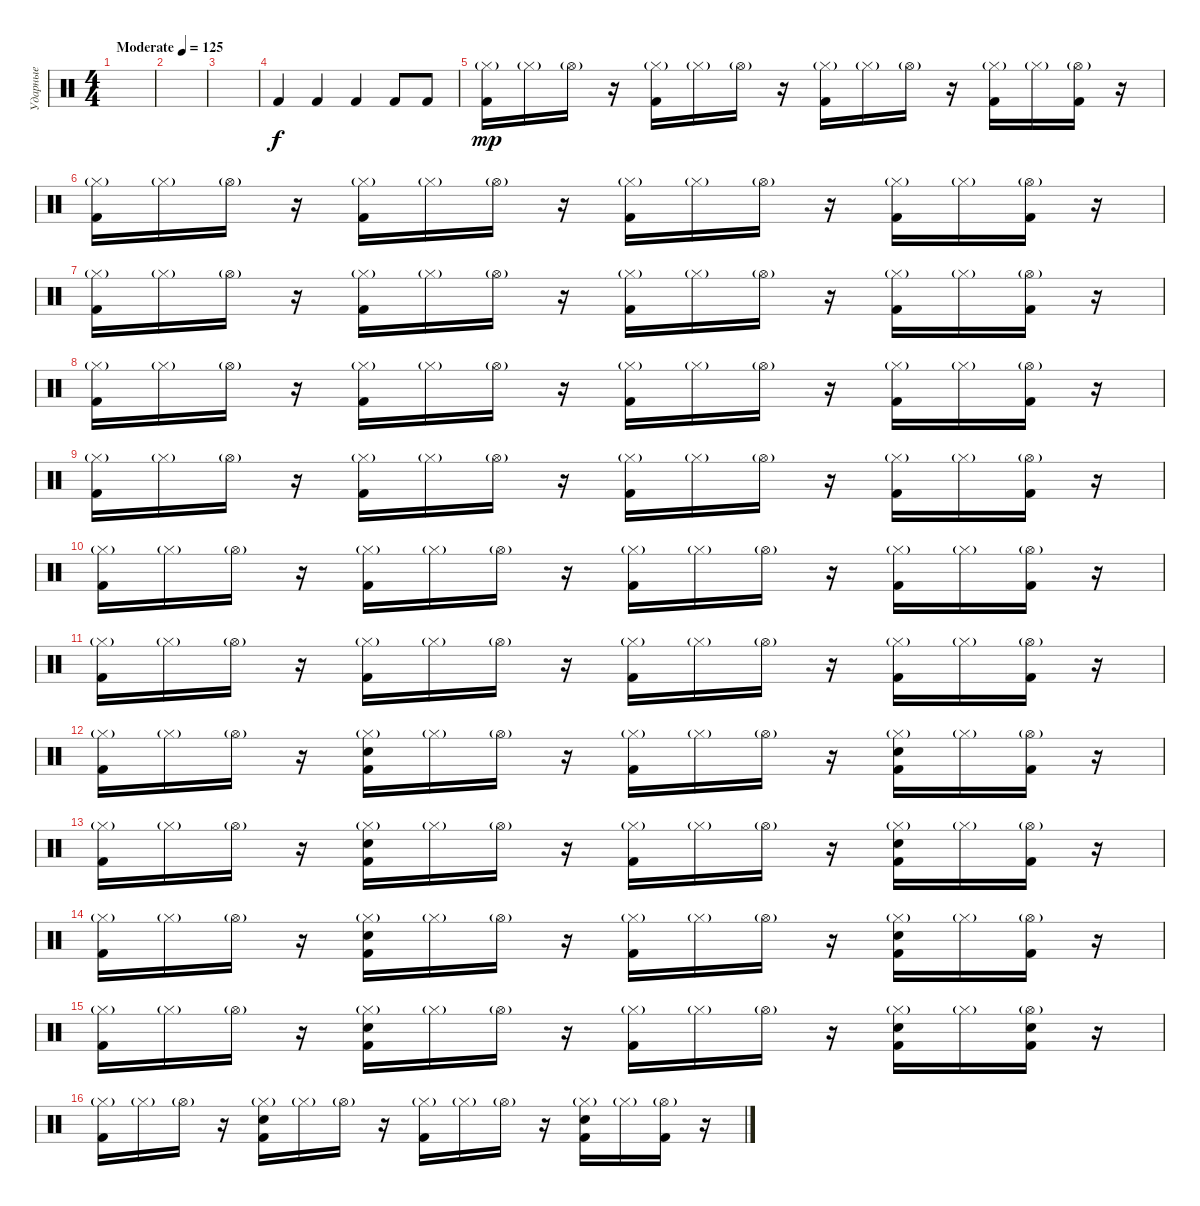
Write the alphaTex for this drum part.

\track ("Ударные" "Ударные") {instrument percussion}
\staff {score}
\articulation defaults
\ts (4 4)
\tempo (125 "Moderate")
\clef neutral
\ks c
|
|
|
"Kick (hit) 2".4 "Kick (hit) 2".4 "Kick (hit) 2".4 "Kick (hit) 2".8 "Kick (hit) 2".8 |
("Hi-Hat (closed)"{g} "Kick (hit) 2").16{dy mp} "Hi-Hat (closed)"{g}.16 "Hi-Hat (open)"{g}.16 r.16 ("Hi-Hat (closed)"{g} "Kick (hit) 2").16 "Hi-Hat (closed)"{g}.16 "Hi-Hat (open)"{g}.16 r.16 ("Hi-Hat (closed)"{g} "Kick (hit) 2").16 "Hi-Hat (closed)"{g}.16 "Hi-Hat (open)"{g}.16 r.16 ("Hi-Hat (closed)"{g} "Kick (hit) 2").16 "Hi-Hat (closed)"{g}.16 ("Hi-Hat (open)"{g} "Kick (hit) 2").16 r.16 |
("Hi-Hat (closed)"{g} "Kick (hit) 2").16 "Hi-Hat (closed)"{g}.16 "Hi-Hat (open)"{g}.16 r.16 ("Hi-Hat (closed)"{g} "Kick (hit) 2").16 "Hi-Hat (closed)"{g}.16 "Hi-Hat (open)"{g}.16 r.16 ("Hi-Hat (closed)"{g} "Kick (hit) 2").16 "Hi-Hat (closed)"{g}.16 "Hi-Hat (open)"{g}.16 r.16 ("Hi-Hat (closed)"{g} "Kick (hit) 2").16 "Hi-Hat (closed)"{g}.16 ("Hi-Hat (open)"{g} "Kick (hit) 2").16 r.16 |
("Hi-Hat (closed)"{g} "Kick (hit) 2").16 "Hi-Hat (closed)"{g}.16 "Hi-Hat (open)"{g}.16 r.16 ("Hi-Hat (closed)"{g} "Kick (hit) 2").16 "Hi-Hat (closed)"{g}.16 "Hi-Hat (open)"{g}.16 r.16 ("Hi-Hat (closed)"{g} "Kick (hit) 2").16 "Hi-Hat (closed)"{g}.16 "Hi-Hat (open)"{g}.16 r.16 ("Hi-Hat (closed)"{g} "Kick (hit) 2").16 "Hi-Hat (closed)"{g}.16 ("Hi-Hat (open)"{g} "Kick (hit) 2").16 r.16 |
("Hi-Hat (closed)"{g} "Kick (hit) 2").16 "Hi-Hat (closed)"{g}.16 "Hi-Hat (open)"{g}.16 r.16 ("Hi-Hat (closed)"{g} "Kick (hit) 2").16 "Hi-Hat (closed)"{g}.16 "Hi-Hat (open)"{g}.16 r.16 ("Hi-Hat (closed)"{g} "Kick (hit) 2").16 "Hi-Hat (closed)"{g}.16 "Hi-Hat (open)"{g}.16 r.16 ("Hi-Hat (closed)"{g} "Kick (hit) 2").16 "Hi-Hat (closed)"{g}.16 ("Hi-Hat (open)"{g} "Kick (hit) 2").16 r.16 |
("Hi-Hat (closed)"{g} "Kick (hit) 2").16 "Hi-Hat (closed)"{g}.16 "Hi-Hat (open)"{g}.16 r.16 ("Hi-Hat (closed)"{g} "Kick (hit) 2").16 "Hi-Hat (closed)"{g}.16 "Hi-Hat (open)"{g}.16 r.16 ("Hi-Hat (closed)"{g} "Kick (hit) 2").16 "Hi-Hat (closed)"{g}.16 "Hi-Hat (open)"{g}.16 r.16 ("Hi-Hat (closed)"{g} "Kick (hit) 2").16 "Hi-Hat (closed)"{g}.16 ("Hi-Hat (open)"{g} "Kick (hit) 2").16 r.16 |
("Hi-Hat (closed)"{g} "Kick (hit) 2").16 "Hi-Hat (closed)"{g}.16 "Hi-Hat (open)"{g}.16 r.16 ("Hi-Hat (closed)"{g} "Kick (hit) 2").16 "Hi-Hat (closed)"{g}.16 "Hi-Hat (open)"{g}.16 r.16 ("Hi-Hat (closed)"{g} "Kick (hit) 2").16 "Hi-Hat (closed)"{g}.16 "Hi-Hat (open)"{g}.16 r.16 ("Hi-Hat (closed)"{g} "Kick (hit) 2").16 "Hi-Hat (closed)"{g}.16 ("Hi-Hat (open)"{g} "Kick (hit) 2").16 r.16 |
("Hi-Hat (closed)"{g} "Kick (hit) 2").16 "Hi-Hat (closed)"{g}.16 "Hi-Hat (open)"{g}.16 r.16 ("Hi-Hat (closed)"{g} "Kick (hit) 2").16 "Hi-Hat (closed)"{g}.16 "Hi-Hat (open)"{g}.16 r.16 ("Hi-Hat (closed)"{g} "Kick (hit) 2").16 "Hi-Hat (closed)"{g}.16 "Hi-Hat (open)"{g}.16 r.16 ("Hi-Hat (closed)"{g} "Kick (hit) 2").16 "Hi-Hat (closed)"{g}.16 ("Hi-Hat (open)"{g} "Kick (hit) 2").16 r.16 |
("Hi-Hat (closed)"{g} "Kick (hit) 2").16 "Hi-Hat (closed)"{g}.16 "Hi-Hat (open)"{g}.16 r.16 ("Snare (hit) 2" "Hi-Hat (closed)"{g} "Kick (hit) 2").16 "Hi-Hat (closed)"{g}.16 "Hi-Hat (open)"{g}.16 r.16 ("Hi-Hat (closed)"{g} "Kick (hit) 2").16 "Hi-Hat (closed)"{g}.16 "Hi-Hat (open)"{g}.16 r.16 ("Snare (hit) 2" "Hi-Hat (closed)"{g} "Kick (hit) 2").16 "Hi-Hat (closed)"{g}.16 ("Hi-Hat (open)"{g} "Kick (hit) 2").16 r.16 |
("Hi-Hat (closed)"{g} "Kick (hit) 2").16 "Hi-Hat (closed)"{g}.16 "Hi-Hat (open)"{g}.16 r.16 ("Snare (hit) 2" "Hi-Hat (closed)"{g} "Kick (hit) 2").16 "Hi-Hat (closed)"{g}.16 "Hi-Hat (open)"{g}.16 r.16 ("Hi-Hat (closed)"{g} "Kick (hit) 2").16 "Hi-Hat (closed)"{g}.16 "Hi-Hat (open)"{g}.16 r.16 ("Snare (hit) 2" "Hi-Hat (closed)"{g} "Kick (hit) 2").16 "Hi-Hat (closed)"{g}.16 ("Hi-Hat (open)"{g} "Kick (hit) 2").16 r.16 |
("Hi-Hat (closed)"{g} "Kick (hit) 2").16 "Hi-Hat (closed)"{g}.16 "Hi-Hat (open)"{g}.16 r.16 ("Snare (hit) 2" "Hi-Hat (closed)"{g} "Kick (hit) 2").16 "Hi-Hat (closed)"{g}.16 "Hi-Hat (open)"{g}.16 r.16 ("Hi-Hat (closed)"{g} "Kick (hit) 2").16 "Hi-Hat (closed)"{g}.16 "Hi-Hat (open)"{g}.16 r.16 ("Snare (hit) 2" "Hi-Hat (closed)"{g} "Kick (hit) 2").16 "Hi-Hat (closed)"{g}.16 ("Hi-Hat (open)"{g} "Kick (hit) 2").16 r.16 |
("Hi-Hat (closed)"{g} "Kick (hit) 2").16 "Hi-Hat (closed)"{g}.16 "Hi-Hat (open)"{g}.16 r.16 ("Snare (hit) 2" "Hi-Hat (closed)"{g} "Kick (hit) 2").16 "Hi-Hat (closed)"{g}.16 "Hi-Hat (open)"{g}.16 r.16 ("Hi-Hat (closed)"{g} "Kick (hit) 2").16 "Hi-Hat (closed)"{g}.16 "Hi-Hat (open)"{g}.16 r.16 ("Snare (hit) 2" "Hi-Hat (closed)"{g} "Kick (hit) 2").16 "Hi-Hat (closed)"{g}.16 ("Snare (hit) 2" "Hi-Hat (open)"{g} "Kick (hit) 2").16 r.16 |
("Hi-Hat (closed)"{g} "Kick (hit) 2").16 "Hi-Hat (closed)"{g}.16 "Hi-Hat (open)"{g}.16 r.16 ("Snare (hit) 2" "Hi-Hat (closed)"{g} "Kick (hit) 2").16 "Hi-Hat (closed)"{g}.16 "Hi-Hat (open)"{g}.16 r.16 ("Hi-Hat (closed)"{g} "Kick (hit) 2").16 "Hi-Hat (closed)"{g}.16 "Hi-Hat (open)"{g}.16 r.16 ("Snare (hit) 2" "Hi-Hat (closed)"{g} "Kick (hit) 2").16 "Hi-Hat (closed)"{g}.16 ("Hi-Hat (open)"{g} "Kick (hit) 2").16 r.16
